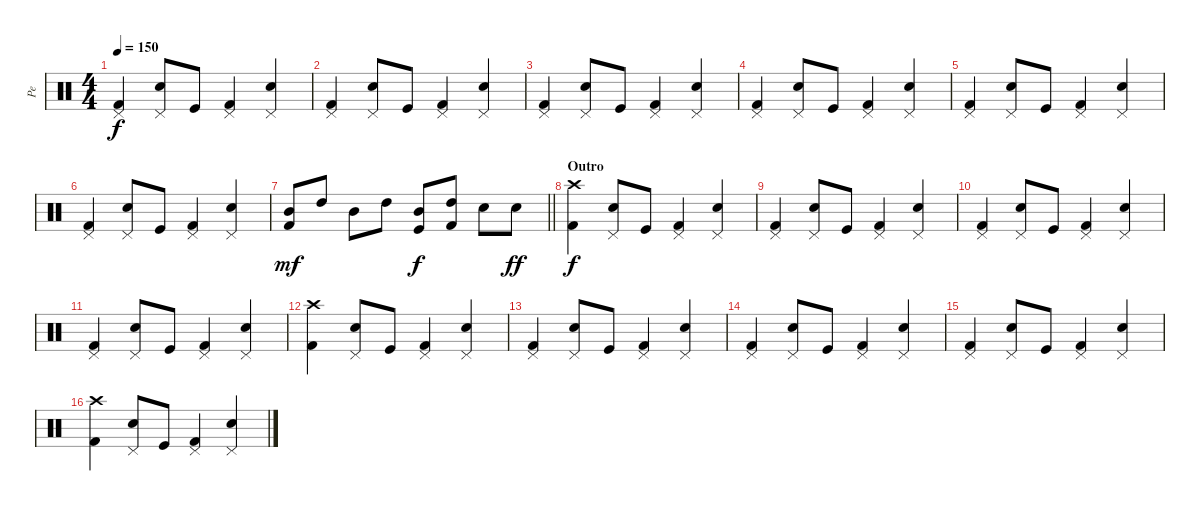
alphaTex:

\track ("Pe" "Pe") {instrument percussion}
\staff {score}
\articulation defaults
\ts (4 4)
\tempo 150
\clef neutral
\ks c
("Kick (hit) 2" "Pedal Hi-Hat (hit)").4{dy f} ("Electric Snare (hit)" "Pedal Hi-Hat (hit)").8 "Kick (hit)".8 ("Kick (hit) 2" "Pedal Hi-Hat (hit)").4 ("Electric Snare (hit)" "Pedal Hi-Hat (hit)").4 |
("Kick (hit) 2" "Pedal Hi-Hat (hit)").4 ("Electric Snare (hit)" "Pedal Hi-Hat (hit)").8 "Kick (hit)".8 ("Kick (hit) 2" "Pedal Hi-Hat (hit)").4 ("Electric Snare (hit)" "Pedal Hi-Hat (hit)").4 |
("Kick (hit) 2" "Pedal Hi-Hat (hit)").4 ("Electric Snare (hit)" "Pedal Hi-Hat (hit)").8 "Kick (hit)".8 ("Kick (hit) 2" "Pedal Hi-Hat (hit)").4 ("Electric Snare (hit)" "Pedal Hi-Hat (hit)").4 |
("Kick (hit) 2" "Pedal Hi-Hat (hit)").4 ("Electric Snare (hit)" "Pedal Hi-Hat (hit)").8 "Kick (hit)".8 ("Kick (hit) 2" "Pedal Hi-Hat (hit)").4 ("Electric Snare (hit)" "Pedal Hi-Hat (hit)").4 |
("Kick (hit) 2" "Pedal Hi-Hat (hit)").4 ("Electric Snare (hit)" "Pedal Hi-Hat (hit)").8 "Kick (hit)".8 ("Kick (hit) 2" "Pedal Hi-Hat (hit)").4 ("Electric Snare (hit)" "Pedal Hi-Hat (hit)").4 |
("Kick (hit) 2" "Pedal Hi-Hat (hit)").4 ("Electric Snare (hit)" "Pedal Hi-Hat (hit)").8 "Kick (hit)".8 ("Kick (hit) 2" "Pedal Hi-Hat (hit)").4 ("Electric Snare (hit)" "Pedal Hi-Hat (hit)").4 |
\barLineRight lightlight
("Kick (hit) 2" "Mid Tom (hit)").8{dy mf} "High Tom (hit)".8 "Mid Tom (hit)".8 "High Tom (hit)".8 ("Kick (hit)" "Mid Tom (hit)").8{dy f} ("Kick (hit) 2" "High Tom (hit)").8 "Electric Snare (hit)".8 "Electric Snare (hit)".8{dy ff} |
\section ("" "Outro")
("Kick (hit) 2" "Crash high (hit)").4{dy f} ("Electric Snare (hit)" "Pedal Hi-Hat (hit)").8 "Kick (hit)".8 ("Kick (hit) 2" "Pedal Hi-Hat (hit)").4 ("Electric Snare (hit)" "Pedal Hi-Hat (hit)").4 |
("Kick (hit) 2" "Pedal Hi-Hat (hit)").4 ("Electric Snare (hit)" "Pedal Hi-Hat (hit)").8 "Kick (hit)".8 ("Kick (hit) 2" "Pedal Hi-Hat (hit)").4 ("Electric Snare (hit)" "Pedal Hi-Hat (hit)").4 |
("Kick (hit) 2" "Pedal Hi-Hat (hit)").4 ("Electric Snare (hit)" "Pedal Hi-Hat (hit)").8 "Kick (hit)".8 ("Kick (hit) 2" "Pedal Hi-Hat (hit)").4 ("Electric Snare (hit)" "Pedal Hi-Hat (hit)").4 |
("Kick (hit) 2" "Pedal Hi-Hat (hit)").4 ("Electric Snare (hit)" "Pedal Hi-Hat (hit)").8 "Kick (hit)".8 ("Kick (hit) 2" "Pedal Hi-Hat (hit)").4 ("Electric Snare (hit)" "Pedal Hi-Hat (hit)").4 |
("Kick (hit) 2" "Crash high (hit)").4 ("Electric Snare (hit)" "Pedal Hi-Hat (hit)").8 "Kick (hit)".8 ("Kick (hit) 2" "Pedal Hi-Hat (hit)").4 ("Electric Snare (hit)" "Pedal Hi-Hat (hit)").4 |
("Kick (hit) 2" "Pedal Hi-Hat (hit)").4 ("Electric Snare (hit)" "Pedal Hi-Hat (hit)").8 "Kick (hit)".8 ("Kick (hit) 2" "Pedal Hi-Hat (hit)").4 ("Electric Snare (hit)" "Pedal Hi-Hat (hit)").4 |
("Kick (hit) 2" "Pedal Hi-Hat (hit)").4 ("Electric Snare (hit)" "Pedal Hi-Hat (hit)").8 "Kick (hit)".8 ("Kick (hit) 2" "Pedal Hi-Hat (hit)").4 ("Electric Snare (hit)" "Pedal Hi-Hat (hit)").4 |
("Kick (hit) 2" "Pedal Hi-Hat (hit)").4 ("Electric Snare (hit)" "Pedal Hi-Hat (hit)").8 "Kick (hit)".8 ("Kick (hit) 2" "Pedal Hi-Hat (hit)").4 ("Electric Snare (hit)" "Pedal Hi-Hat (hit)").4 |
("Kick (hit) 2" "Crash high (hit)").4 ("Electric Snare (hit)" "Pedal Hi-Hat (hit)").8 "Kick (hit)".8 ("Kick (hit) 2" "Pedal Hi-Hat (hit)").4 ("Electric Snare (hit)" "Pedal Hi-Hat (hit)").4
